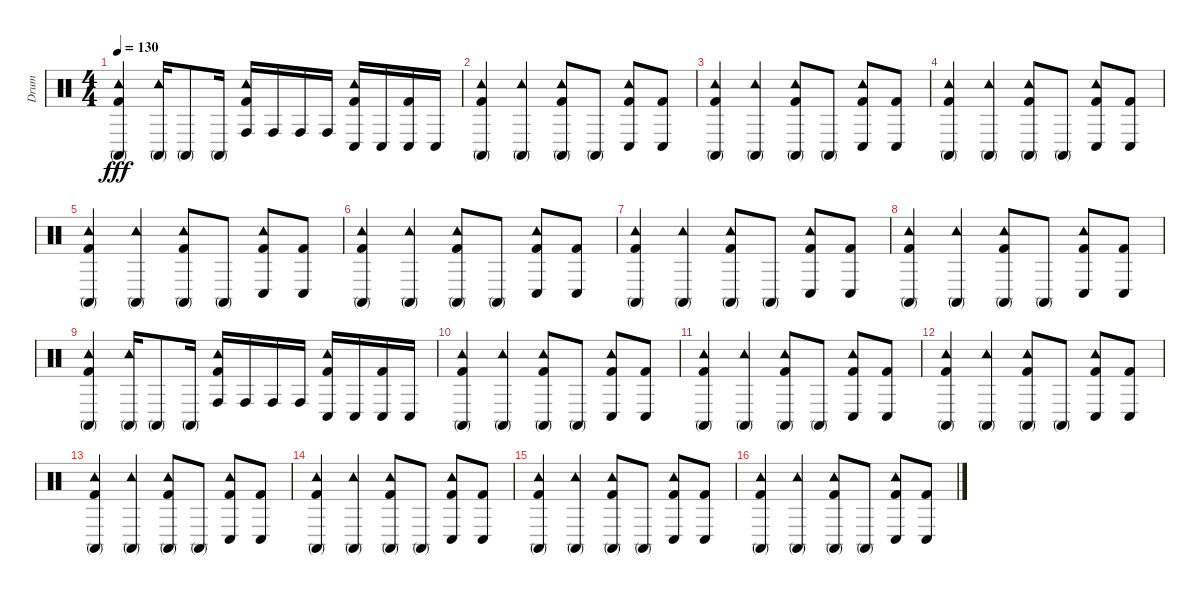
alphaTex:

\track ("Drum" "Drum") {instrument percussion}
\staff {score}
\articulation defaults
\ts (4 4)
\tempo 130
\clef neutral
\ks c
("Tambourine (hit)" "Conga high (mute)" "Kick (hit) 2").4{dy fff} ("Tambourine (hit)" "Conga high (mute)").16 "Conga high (mute)".8 "Conga high (mute)".16 ("Tambourine (hit)" "Conga high (hit)" "Kick (hit) 2").16 "Conga high (hit)".16 "Conga high (hit)".16 "Conga high (hit)".16 ("Tambourine (hit)" "Conga low (hit)" "Kick (hit) 2").16 "Conga low (hit)".16 ("Conga low (hit)" "Kick (hit) 2").16 "Conga low (hit)".16 |
("Tambourine (hit)" "Conga high (mute)" "Kick (hit) 2").4 ("Tambourine (hit)" "Conga high (mute)").4 ("Tambourine (hit)" "Conga high (mute)" "Kick (hit) 2").8 "Conga high (mute)".8 ("Tambourine (hit)" "Conga low (hit)" "Kick (hit) 2").8 ("Conga low (hit)" "Kick (hit) 2").8 |
("Tambourine (hit)" "Conga high (mute)" "Kick (hit) 2").4 ("Tambourine (hit)" "Conga high (mute)").4 ("Tambourine (hit)" "Conga high (mute)" "Kick (hit) 2").8 "Conga high (mute)".8 ("Tambourine (hit)" "Conga low (hit)" "Kick (hit) 2").8 ("Conga low (hit)" "Kick (hit) 2").8 |
("Tambourine (hit)" "Conga high (mute)" "Kick (hit) 2").4 ("Tambourine (hit)" "Conga high (mute)").4 ("Tambourine (hit)" "Conga high (mute)" "Kick (hit) 2").8 "Conga high (mute)".8 ("Tambourine (hit)" "Conga low (hit)" "Kick (hit) 2").8 ("Conga low (hit)" "Kick (hit) 2").8 |
("Tambourine (hit)" "Conga high (mute)" "Kick (hit) 2").4 ("Tambourine (hit)" "Conga high (mute)").4 ("Tambourine (hit)" "Conga high (mute)" "Kick (hit) 2").8 "Conga high (mute)".8 ("Tambourine (hit)" "Conga low (hit)" "Kick (hit) 2").8 ("Conga low (hit)" "Kick (hit) 2").8 |
("Tambourine (hit)" "Conga high (mute)" "Kick (hit) 2").4 ("Tambourine (hit)" "Conga high (mute)").4 ("Tambourine (hit)" "Conga high (mute)" "Kick (hit) 2").8 "Conga high (mute)".8 ("Tambourine (hit)" "Conga low (hit)" "Kick (hit) 2").8 ("Conga low (hit)" "Kick (hit) 2").8 |
("Tambourine (hit)" "Conga high (mute)" "Kick (hit) 2").4 ("Tambourine (hit)" "Conga high (mute)").4 ("Tambourine (hit)" "Conga high (mute)" "Kick (hit) 2").8 "Conga high (mute)".8 ("Tambourine (hit)" "Conga low (hit)" "Kick (hit) 2").8 ("Conga low (hit)" "Kick (hit) 2").8 |
("Tambourine (hit)" "Conga high (mute)" "Kick (hit) 2").4 ("Tambourine (hit)" "Conga high (mute)").4 ("Tambourine (hit)" "Conga high (mute)" "Kick (hit) 2").8 "Conga high (mute)".8 ("Tambourine (hit)" "Conga low (hit)" "Kick (hit) 2").8 ("Conga low (hit)" "Kick (hit) 2").8 |
("Tambourine (hit)" "Conga high (mute)" "Kick (hit) 2").4 ("Tambourine (hit)" "Conga high (mute)").16 "Conga high (mute)".8 "Conga high (mute)".16 ("Tambourine (hit)" "Conga high (hit)" "Kick (hit) 2").16 "Conga high (hit)".16 "Conga high (hit)".16 "Conga high (hit)".16 ("Tambourine (hit)" "Conga low (hit)" "Kick (hit) 2").16 "Conga low (hit)".16 ("Conga low (hit)" "Kick (hit) 2").16 "Conga low (hit)".16 |
("Tambourine (hit)" "Conga high (mute)" "Kick (hit) 2").4 ("Tambourine (hit)" "Conga high (mute)").4 ("Tambourine (hit)" "Conga high (mute)" "Kick (hit) 2").8 "Conga high (mute)".8 ("Tambourine (hit)" "Conga low (hit)" "Kick (hit) 2").8 ("Conga low (hit)" "Kick (hit) 2").8 |
("Tambourine (hit)" "Conga high (mute)" "Kick (hit) 2").4 ("Tambourine (hit)" "Conga high (mute)").4 ("Tambourine (hit)" "Conga high (mute)" "Kick (hit) 2").8 "Conga high (mute)".8 ("Tambourine (hit)" "Conga low (hit)" "Kick (hit) 2").8 ("Conga low (hit)" "Kick (hit) 2").8 |
("Tambourine (hit)" "Conga high (mute)" "Kick (hit) 2").4 ("Tambourine (hit)" "Conga high (mute)").4 ("Tambourine (hit)" "Conga high (mute)" "Kick (hit) 2").8 "Conga high (mute)".8 ("Tambourine (hit)" "Conga low (hit)" "Kick (hit) 2").8 ("Conga low (hit)" "Kick (hit) 2").8 |
("Tambourine (hit)" "Conga high (mute)" "Kick (hit) 2").4 ("Tambourine (hit)" "Conga high (mute)").4 ("Tambourine (hit)" "Conga high (mute)" "Kick (hit) 2").8 "Conga high (mute)".8 ("Tambourine (hit)" "Conga low (hit)" "Kick (hit) 2").8 ("Conga low (hit)" "Kick (hit) 2").8 |
("Tambourine (hit)" "Conga high (mute)" "Kick (hit) 2").4 ("Tambourine (hit)" "Conga high (mute)").4 ("Tambourine (hit)" "Conga high (mute)" "Kick (hit) 2").8 "Conga high (mute)".8 ("Tambourine (hit)" "Conga low (hit)" "Kick (hit) 2").8 ("Conga low (hit)" "Kick (hit) 2").8 |
("Tambourine (hit)" "Conga high (mute)" "Kick (hit) 2").4 ("Tambourine (hit)" "Conga high (mute)").4 ("Tambourine (hit)" "Conga high (mute)" "Kick (hit) 2").8 "Conga high (mute)".8 ("Tambourine (hit)" "Conga low (hit)" "Kick (hit) 2").8 ("Conga low (hit)" "Kick (hit) 2").8 |
("Tambourine (hit)" "Conga high (mute)" "Kick (hit) 2").4 ("Tambourine (hit)" "Conga high (mute)").4 ("Tambourine (hit)" "Conga high (mute)" "Kick (hit) 2").8 "Conga high (mute)".8 ("Tambourine (hit)" "Conga low (hit)" "Kick (hit) 2").8 ("Conga low (hit)" "Kick (hit) 2").8
